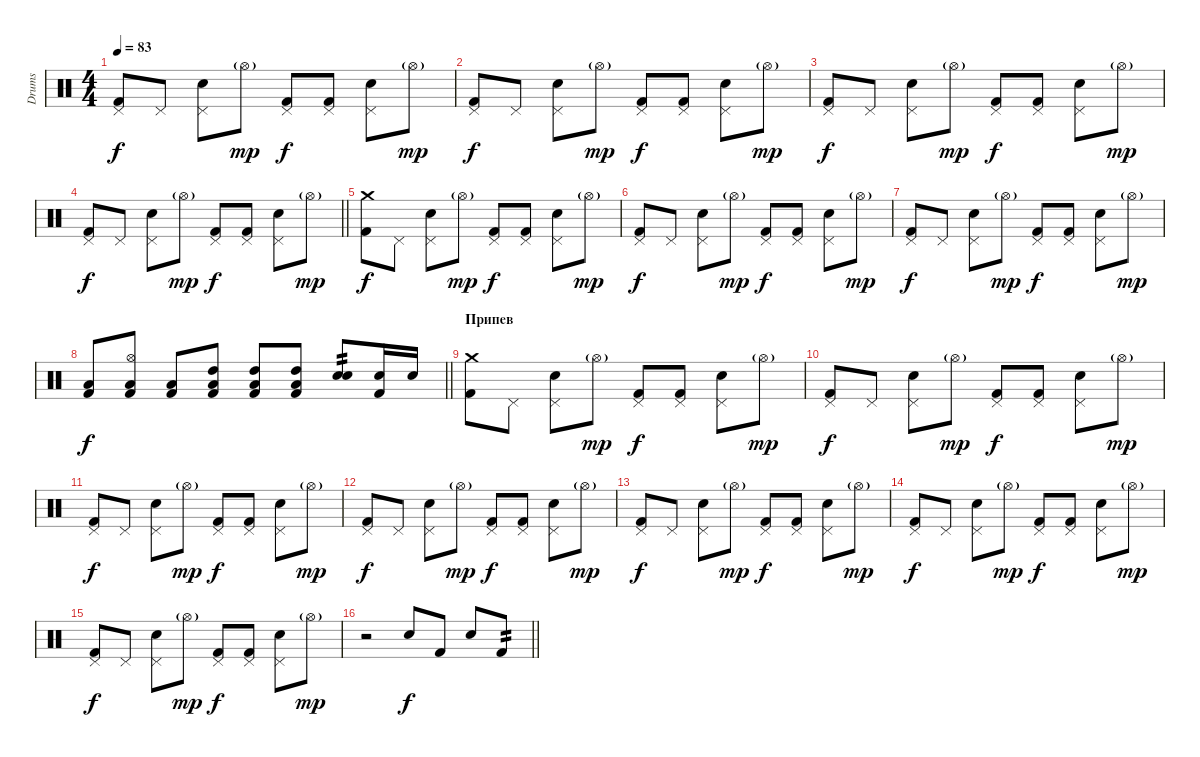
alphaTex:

\track ("Drums" "Drums") {instrument percussion}
\staff {score}
\articulation defaults
\ts (4 4)
\tempo 83
\clef neutral
\ks c
("Pedal Hi-Hat (hit)" "Kick (hit) 2").8{dy f} "Pedal Hi-Hat (hit)".8 ("Pedal Hi-Hat (hit)" "Electric Snare (hit)").8 "Hi-Hat (open)"{g}.8{dy mp} ("Pedal Hi-Hat (hit)" "Kick (hit) 2").8{dy f} ("Pedal Hi-Hat (hit)" "Kick (hit) 2").8 ("Pedal Hi-Hat (hit)" "Electric Snare (hit)").8 "Hi-Hat (open)"{g}.8{dy mp} |
("Pedal Hi-Hat (hit)" "Kick (hit) 2").8{dy f} "Pedal Hi-Hat (hit)".8 ("Pedal Hi-Hat (hit)" "Electric Snare (hit)").8 "Hi-Hat (open)"{g}.8{dy mp} ("Pedal Hi-Hat (hit)" "Kick (hit) 2").8{dy f} ("Pedal Hi-Hat (hit)" "Kick (hit) 2").8 ("Pedal Hi-Hat (hit)" "Electric Snare (hit)").8 "Hi-Hat (open)"{g}.8{dy mp} |
("Pedal Hi-Hat (hit)" "Kick (hit) 2").8{dy f} "Pedal Hi-Hat (hit)".8 ("Pedal Hi-Hat (hit)" "Electric Snare (hit)").8 "Hi-Hat (open)"{g}.8{dy mp} ("Pedal Hi-Hat (hit)" "Kick (hit) 2").8{dy f} ("Pedal Hi-Hat (hit)" "Kick (hit) 2").8 ("Pedal Hi-Hat (hit)" "Electric Snare (hit)").8 "Hi-Hat (open)"{g}.8{dy mp} |
\barLineRight lightlight
("Pedal Hi-Hat (hit)" "Kick (hit) 2").8{dy f} "Pedal Hi-Hat (hit)".8 ("Pedal Hi-Hat (hit)" "Electric Snare (hit)").8 "Hi-Hat (open)"{g}.8{dy mp} ("Pedal Hi-Hat (hit)" "Kick (hit) 2").8{dy f} ("Pedal Hi-Hat (hit)" "Kick (hit) 2").8 ("Pedal Hi-Hat (hit)" "Electric Snare (hit)").8 "Hi-Hat (open)"{g}.8{dy mp} |
\section ("" "")
("Crash medium (hit)" "Kick (hit) 2").8{dy f} "Pedal Hi-Hat (hit)".8 ("Pedal Hi-Hat (hit)" "Electric Snare (hit)").8 "Hi-Hat (open)"{g}.8{dy mp} ("Pedal Hi-Hat (hit)" "Kick (hit) 2").8{dy f} ("Pedal Hi-Hat (hit)" "Kick (hit) 2").8 ("Pedal Hi-Hat (hit)" "Electric Snare (hit)").8 "Hi-Hat (open)"{g}.8{dy mp} |
("Pedal Hi-Hat (hit)" "Kick (hit) 2").8{dy f} "Pedal Hi-Hat (hit)".8 ("Pedal Hi-Hat (hit)" "Electric Snare (hit)").8 "Hi-Hat (open)"{g}.8{dy mp} ("Pedal Hi-Hat (hit)" "Kick (hit) 2").8{dy f} ("Pedal Hi-Hat (hit)" "Kick (hit) 2").8 ("Pedal Hi-Hat (hit)" "Electric Snare (hit)").8 "Hi-Hat (open)"{g}.8{dy mp} |
("Pedal Hi-Hat (hit)" "Kick (hit) 2").8{dy f} "Pedal Hi-Hat (hit)".8 ("Pedal Hi-Hat (hit)" "Electric Snare (hit)").8 "Hi-Hat (open)"{g}.8{dy mp} ("Pedal Hi-Hat (hit)" "Kick (hit) 2").8{dy f} ("Pedal Hi-Hat (hit)" "Kick (hit) 2").8 ("Pedal Hi-Hat (hit)" "Electric Snare (hit)").8 "Hi-Hat (open)"{g}.8{dy mp} |
\barLineRight lightlight
("Low Tom (hit)" "Kick (hit) 2").8{dy f} ("Hi-Hat (open)" "Low Tom (hit)" "Kick (hit) 2").8 ("Low Tom (hit)" "Kick (hit) 2").8 ("Low Tom (hit)" "High Tom (hit)" "Kick (hit) 2").8 ("Low Tom (hit)" "High Tom (hit)" "Kick (hit) 2").8 ("Low Tom (hit)" "High Tom (hit)" "Kick (hit) 2").8 ("Electric Snare (hit)" "Electric Snare (hit)").8{tp 2} ("Electric Snare (hit)" "Kick (hit) 2").16 "Electric Snare (hit)".16 |
\section ("" "Припев")
("Crash medium (hit)" "Kick (hit) 2").8 "Pedal Hi-Hat (hit)".8 ("Pedal Hi-Hat (hit)" "Electric Snare (hit)").8 "Hi-Hat (open)"{g}.8{dy mp} ("Pedal Hi-Hat (hit)" "Kick (hit) 2").8{dy f} ("Pedal Hi-Hat (hit)" "Kick (hit) 2").8 ("Pedal Hi-Hat (hit)" "Electric Snare (hit)").8 "Hi-Hat (open)"{g}.8{dy mp} |
("Pedal Hi-Hat (hit)" "Kick (hit) 2").8{dy f} "Pedal Hi-Hat (hit)".8 ("Pedal Hi-Hat (hit)" "Electric Snare (hit)").8 "Hi-Hat (open)"{g}.8{dy mp} ("Pedal Hi-Hat (hit)" "Kick (hit) 2").8{dy f} ("Pedal Hi-Hat (hit)" "Kick (hit) 2").8 ("Pedal Hi-Hat (hit)" "Electric Snare (hit)").8 "Hi-Hat (open)"{g}.8{dy mp} |
("Pedal Hi-Hat (hit)" "Kick (hit) 2").8{dy f} "Pedal Hi-Hat (hit)".8 ("Pedal Hi-Hat (hit)" "Electric Snare (hit)").8 "Hi-Hat (open)"{g}.8{dy mp} ("Pedal Hi-Hat (hit)" "Kick (hit) 2").8{dy f} ("Pedal Hi-Hat (hit)" "Kick (hit) 2").8 ("Pedal Hi-Hat (hit)" "Electric Snare (hit)").8 "Hi-Hat (open)"{g}.8{dy mp} |
("Pedal Hi-Hat (hit)" "Kick (hit) 2").8{dy f} "Pedal Hi-Hat (hit)".8 ("Pedal Hi-Hat (hit)" "Electric Snare (hit)").8 "Hi-Hat (open)"{g}.8{dy mp} ("Pedal Hi-Hat (hit)" "Kick (hit) 2").8{dy f} ("Pedal Hi-Hat (hit)" "Kick (hit) 2").8 ("Pedal Hi-Hat (hit)" "Electric Snare (hit)").8 "Hi-Hat (open)"{g}.8{dy mp} |
("Pedal Hi-Hat (hit)" "Kick (hit) 2").8{dy f} "Pedal Hi-Hat (hit)".8 ("Pedal Hi-Hat (hit)" "Electric Snare (hit)").8 "Hi-Hat (open)"{g}.8{dy mp} ("Pedal Hi-Hat (hit)" "Kick (hit) 2").8{dy f} ("Pedal Hi-Hat (hit)" "Kick (hit) 2").8 ("Pedal Hi-Hat (hit)" "Electric Snare (hit)").8 "Hi-Hat (open)"{g}.8{dy mp} |
("Pedal Hi-Hat (hit)" "Kick (hit) 2").8{dy f} "Pedal Hi-Hat (hit)".8 ("Pedal Hi-Hat (hit)" "Electric Snare (hit)").8 "Hi-Hat (open)"{g}.8{dy mp} ("Pedal Hi-Hat (hit)" "Kick (hit) 2").8{dy f} ("Pedal Hi-Hat (hit)" "Kick (hit) 2").8 ("Pedal Hi-Hat (hit)" "Electric Snare (hit)").8 "Hi-Hat (open)"{g}.8{dy mp} |
("Pedal Hi-Hat (hit)" "Kick (hit) 2").8{dy f} "Pedal Hi-Hat (hit)".8 ("Pedal Hi-Hat (hit)" "Electric Snare (hit)").8 "Hi-Hat (open)"{g}.8{dy mp} ("Pedal Hi-Hat (hit)" "Kick (hit) 2").8{dy f} ("Pedal Hi-Hat (hit)" "Kick (hit) 2").8 ("Pedal Hi-Hat (hit)" "Electric Snare (hit)").8 "Hi-Hat (open)"{g}.8{dy mp} |
\barLineRight lightlight
r.2 "Electric Snare (hit)".8{dy f} "Kick (hit) 2".8 "Electric Snare (hit)".8 "Kick (hit) 2".8{tp 2}
